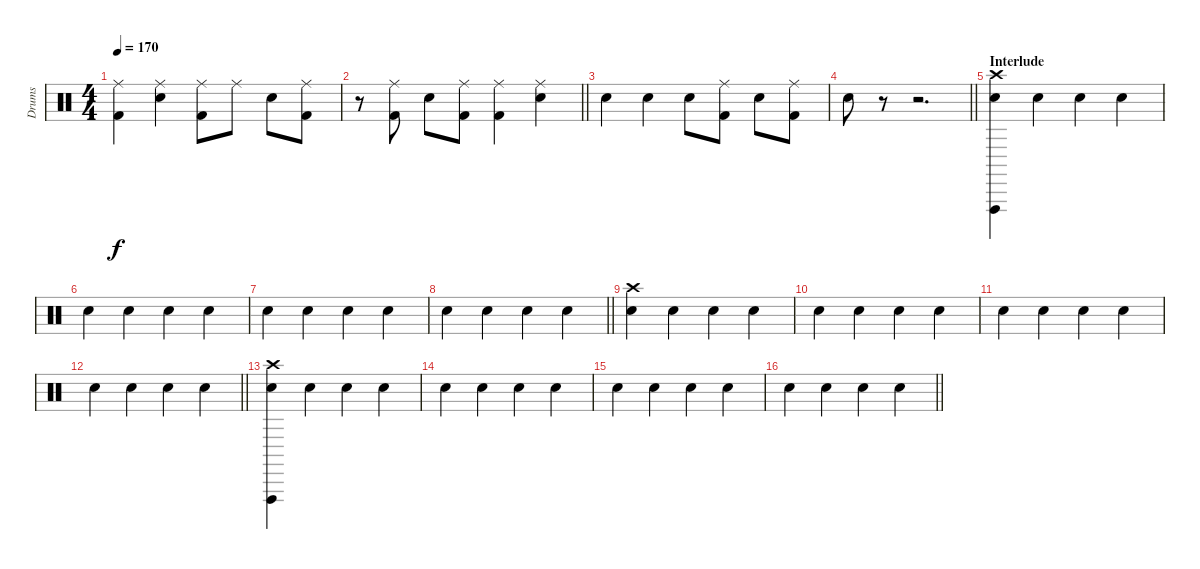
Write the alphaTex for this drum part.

\track ("Drums" "Drums") {instrument percussion}
\staff {score}
\articulation defaults
\ts (4 4)
\tempo 170
\clef neutral
\ks c
("Ride (middle)" "Kick (hit) 2").4{dy f} ("Ride (middle)" "Electric Snare (hit)").4 ("Ride (middle)" "Kick (hit) 2").8 "Ride (middle)".8 "Electric Snare (hit)".8 ("Ride (middle)" "Kick (hit) 2").8 |
\barLineRight lightlight
r.8 ("Ride (middle)" "Kick (hit) 2").8 "Electric Snare (hit)".8 ("Ride (middle)" "Kick (hit) 2").8 ("Ride (middle)" "Kick (hit) 2").4 ("Ride (middle)" "Electric Snare (hit)").4 |
"Electric Snare (hit)".4 "Electric Snare (hit)".4 "Electric Snare (hit)".8 ("Ride (middle)" "Kick (hit) 2").8 "Electric Snare (hit)".8 ("Ride (middle)" "Kick (hit) 2").8 |
\barLineRight lightlight "Electric Snare (hit)".8
r.8 r.2{d} |
\section ("" "Interlude")
("Crash high (hit)" "Vibraslap (hit)" "Hand Clap (hit)").4 "Hand Clap (hit)".4 "Hand Clap (hit)".4 "Hand Clap (hit)".4 |
"Hand Clap (hit)".4 "Hand Clap (hit)".4 "Hand Clap (hit)".4 "Hand Clap (hit)".4 |
"Hand Clap (hit)".4 "Hand Clap (hit)".4 "Hand Clap (hit)".4 "Hand Clap (hit)".4 |
\barLineRight lightlight "Hand Clap (hit)".4 "Hand Clap (hit)".4 "Hand Clap (hit)".4 "Hand Clap (hit)".4
|
("Crash high (hit)" "Hand Clap (hit)").4 "Hand Clap (hit)".4 "Hand Clap (hit)".4 "Hand Clap (hit)".4 |
"Hand Clap (hit)".4 "Hand Clap (hit)".4 "Hand Clap (hit)".4 "Hand Clap (hit)".4 |
"Hand Clap (hit)".4 "Hand Clap (hit)".4 "Hand Clap (hit)".4 "Hand Clap (hit)".4 |
\barLineRight lightlight "Hand Clap (hit)".4 "Hand Clap (hit)".4 "Hand Clap (hit)".4 "Hand Clap (hit)".4
|
("Crash high (hit)" "Vibraslap (hit)" "Hand Clap (hit)").4 "Hand Clap (hit)".4 "Hand Clap (hit)".4 "Hand Clap (hit)".4 |
"Hand Clap (hit)".4 "Hand Clap (hit)".4 "Hand Clap (hit)".4 "Hand Clap (hit)".4 |
"Hand Clap (hit)".4 "Hand Clap (hit)".4 "Hand Clap (hit)".4 "Hand Clap (hit)".4 |
\barLineRight lightlight "Hand Clap (hit)".4 "Hand Clap (hit)".4 "Hand Clap (hit)".4 "Hand Clap (hit)".4
